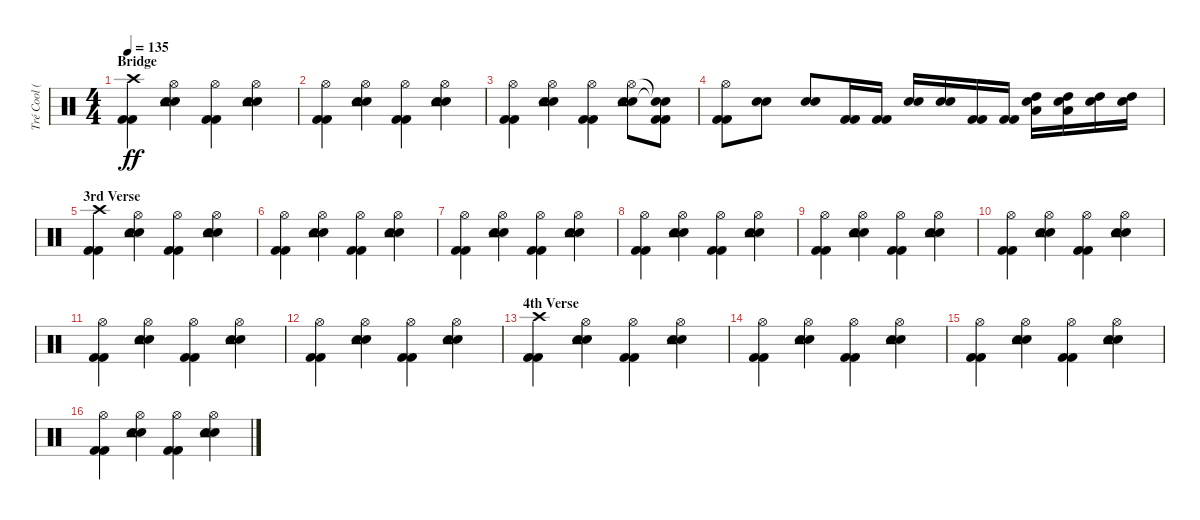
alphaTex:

\track ("Tré Cool (Drums)" "Tré Cool (") {instrument percussion}
\staff {score}
\articulation defaults
\ts (4 4)
\section ("" "Bridge")
\tempo 135
\clef neutral
\ks c
("Kick (hit) 2" "Kick (hit) 2" "Crash high (hit)").4{dy ff} ("Snare (hit) 2" "Snare (hit) 2" "Tambourine (hit)" "Hi-Hat (open)").4 ("Kick (hit) 2" "Kick (hit) 2" "Hi-Hat (open)").4 ("Snare (hit) 2" "Snare (hit) 2" "Tambourine (hit)" "Hi-Hat (open)").4 |
("Kick (hit) 2" "Kick (hit) 2" "Hi-Hat (open)").4 ("Snare (hit) 2" "Snare (hit) 2" "Tambourine (hit)" "Hi-Hat (open)").4 ("Kick (hit) 2" "Kick (hit) 2" "Hi-Hat (open)").4 ("Snare (hit) 2" "Snare (hit) 2" "Tambourine (hit)" "Hi-Hat (open)").4 |
("Kick (hit) 2" "Kick (hit) 2" "Hi-Hat (open)").4 ("Snare (hit) 2" "Snare (hit) 2" "Tambourine (hit)" "Hi-Hat (open)").4 ("Kick (hit) 2" "Kick (hit) 2" "Hi-Hat (open)").4 ("Snare (hit) 2" "Snare (hit) 2" "Tambourine (hit)" "Hi-Hat (open)").8 ("Kick (hit) 2" "Kick (hit) 2" "Snare (hit)"{t} "Snare (hit)"{t}).8 |
("Kick (hit) 2" "Kick (hit) 2" "Hi-Hat (open)").8 ("Snare (hit) 2" "Snare (hit) 2").8 ("Snare (hit) 2" "Snare (hit) 2").8 ("Kick (hit) 2" "Kick (hit) 2").16 ("Kick (hit) 2" "Kick (hit) 2").16 ("Snare (hit) 2" "Snare (hit) 2").16 ("Snare (hit) 2" "Snare (hit) 2").16 ("Kick (hit) 2" "Kick (hit) 2").16 ("Kick (hit) 2" "Kick (hit) 2").16 ("Snare (hit) 2" "High Tom (hit)" "Low Floor Tom (hit)").16 ("Snare (hit) 2" "High Tom (hit)" "Low Floor Tom (hit)").16 ("Snare (hit) 2" "High Tom (hit)").16 ("Snare (hit) 2" "High Tom (hit)").16 |
\section ("" "3rd Verse")
("Kick (hit) 2" "Kick (hit) 2" "Crash high (hit)").4 ("Snare (hit) 2" "Snare (hit) 2" "Tambourine (hit)" "Hi-Hat (open)").4 ("Kick (hit) 2" "Kick (hit) 2" "Hi-Hat (open)").4 ("Snare (hit) 2" "Snare (hit) 2" "Tambourine (hit)" "Hi-Hat (open)").4 |
("Kick (hit) 2" "Kick (hit) 2" "Hi-Hat (open)").4 ("Snare (hit) 2" "Snare (hit) 2" "Tambourine (hit)" "Hi-Hat (open)").4 ("Kick (hit) 2" "Kick (hit) 2" "Hi-Hat (open)").4 ("Snare (hit) 2" "Snare (hit) 2" "Tambourine (hit)" "Hi-Hat (open)").4 |
("Kick (hit) 2" "Kick (hit) 2" "Hi-Hat (open)").4 ("Snare (hit) 2" "Snare (hit) 2" "Tambourine (hit)" "Hi-Hat (open)").4 ("Kick (hit) 2" "Kick (hit) 2" "Hi-Hat (open)").4 ("Snare (hit) 2" "Snare (hit) 2" "Tambourine (hit)" "Hi-Hat (open)").4 |
("Kick (hit) 2" "Kick (hit) 2" "Hi-Hat (open)").4 ("Snare (hit) 2" "Snare (hit) 2" "Tambourine (hit)" "Hi-Hat (open)").4 ("Kick (hit) 2" "Kick (hit) 2" "Hi-Hat (open)").4 ("Snare (hit) 2" "Snare (hit) 2" "Tambourine (hit)" "Hi-Hat (open)").4 |
("Kick (hit) 2" "Kick (hit) 2" "Hi-Hat (open)").4 ("Snare (hit) 2" "Snare (hit) 2" "Tambourine (hit)" "Hi-Hat (open)").4 ("Kick (hit) 2" "Kick (hit) 2" "Hi-Hat (open)").4 ("Snare (hit) 2" "Snare (hit) 2" "Tambourine (hit)" "Hi-Hat (open)").4 |
("Kick (hit) 2" "Kick (hit) 2" "Hi-Hat (open)").4 ("Snare (hit) 2" "Snare (hit) 2" "Tambourine (hit)" "Hi-Hat (open)").4 ("Kick (hit) 2" "Kick (hit) 2" "Hi-Hat (open)").4 ("Snare (hit) 2" "Snare (hit) 2" "Tambourine (hit)" "Hi-Hat (open)").4 |
("Kick (hit) 2" "Kick (hit) 2" "Hi-Hat (open)").4 ("Snare (hit) 2" "Snare (hit) 2" "Tambourine (hit)" "Hi-Hat (open)").4 ("Kick (hit) 2" "Kick (hit) 2" "Hi-Hat (open)").4 ("Snare (hit) 2" "Snare (hit) 2" "Tambourine (hit)" "Hi-Hat (open)").4 |
("Kick (hit) 2" "Kick (hit) 2" "Hi-Hat (open)").4 ("Snare (hit) 2" "Snare (hit) 2" "Tambourine (hit)" "Hi-Hat (open)").4 ("Kick (hit) 2" "Kick (hit) 2" "Hi-Hat (open)").4 ("Snare (hit) 2" "Snare (hit) 2" "Tambourine (hit)" "Hi-Hat (open)").4 |
\section ("" "4th Verse")
("Kick (hit) 2" "Kick (hit) 2" "Crash high (hit)").4 ("Snare (hit) 2" "Snare (hit) 2" "Tambourine (hit)" "Hi-Hat (open)").4 ("Kick (hit) 2" "Kick (hit) 2" "Hi-Hat (open)").4 ("Snare (hit) 2" "Snare (hit) 2" "Tambourine (hit)" "Hi-Hat (open)").4 |
("Kick (hit) 2" "Kick (hit) 2" "Hi-Hat (open)").4 ("Snare (hit) 2" "Snare (hit) 2" "Tambourine (hit)" "Hi-Hat (open)").4 ("Kick (hit) 2" "Kick (hit) 2" "Hi-Hat (open)").4 ("Snare (hit) 2" "Snare (hit) 2" "Tambourine (hit)" "Hi-Hat (open)").4 |
("Kick (hit) 2" "Kick (hit) 2" "Hi-Hat (open)").4 ("Snare (hit) 2" "Snare (hit) 2" "Tambourine (hit)" "Hi-Hat (open)").4 ("Kick (hit) 2" "Kick (hit) 2" "Hi-Hat (open)").4 ("Snare (hit) 2" "Snare (hit) 2" "Tambourine (hit)" "Hi-Hat (open)").4 |
("Kick (hit) 2" "Kick (hit) 2" "Hi-Hat (open)").4 ("Snare (hit) 2" "Snare (hit) 2" "Tambourine (hit)" "Hi-Hat (open)").4 ("Kick (hit) 2" "Kick (hit) 2" "Hi-Hat (open)").4 ("Snare (hit) 2" "Snare (hit) 2" "Tambourine (hit)" "Hi-Hat (open)").4
